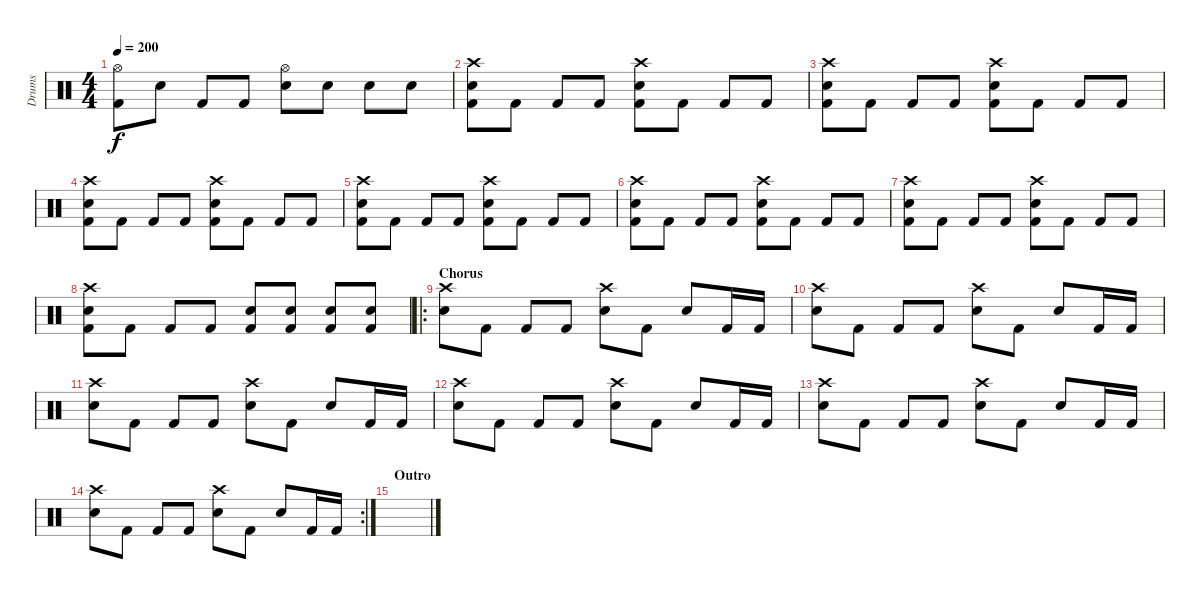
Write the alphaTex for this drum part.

\track ("Drums" "Drums") {instrument percussion}
\staff {score}
\articulation defaults
\ts (4 4)
\tempo 200
\clef neutral
\ks c
("Hi-Hat (open)" "Kick (hit) 2").8{dy f} "Electric Snare (hit)".8 "Kick (hit) 2".8 "Kick (hit) 2".8 ("Hi-Hat (open)" "Electric Snare (hit)").8 "Electric Snare (hit)".8 "Electric Snare (hit)".8 "Electric Snare (hit)".8 |
("Crash high (hit)" "Electric Snare (hit)" "Kick (hit) 2").8 "Kick (hit) 2".8 "Kick (hit) 2".8 "Kick (hit) 2".8 ("Crash high (hit)" "Electric Snare (hit)" "Kick (hit) 2").8 "Kick (hit) 2".8 "Kick (hit) 2".8 "Kick (hit) 2".8 |
("Crash high (hit)" "Electric Snare (hit)" "Kick (hit) 2").8 "Kick (hit) 2".8 "Kick (hit) 2".8 "Kick (hit) 2".8 ("Crash high (hit)" "Electric Snare (hit)" "Kick (hit) 2").8 "Kick (hit) 2".8 "Kick (hit) 2".8 "Kick (hit) 2".8 |
("Crash high (hit)" "Electric Snare (hit)" "Kick (hit) 2").8 "Kick (hit) 2".8 "Kick (hit) 2".8 "Kick (hit) 2".8 ("Crash high (hit)" "Electric Snare (hit)" "Kick (hit) 2").8 "Kick (hit) 2".8 "Kick (hit) 2".8 "Kick (hit) 2".8 |
("Crash high (hit)" "Electric Snare (hit)" "Kick (hit) 2").8 "Kick (hit) 2".8 "Kick (hit) 2".8 "Kick (hit) 2".8 ("Crash high (hit)" "Electric Snare (hit)" "Kick (hit) 2").8 "Kick (hit) 2".8 "Kick (hit) 2".8 "Kick (hit) 2".8 |
("Crash high (hit)" "Electric Snare (hit)" "Kick (hit) 2").8 "Kick (hit) 2".8 "Kick (hit) 2".8 "Kick (hit) 2".8 ("Crash high (hit)" "Electric Snare (hit)" "Kick (hit) 2").8 "Kick (hit) 2".8 "Kick (hit) 2".8 "Kick (hit) 2".8 |
("Crash high (hit)" "Electric Snare (hit)" "Kick (hit) 2").8 "Kick (hit) 2".8 "Kick (hit) 2".8 "Kick (hit) 2".8 ("Crash high (hit)" "Electric Snare (hit)" "Kick (hit) 2").8 "Kick (hit) 2".8 "Kick (hit) 2".8 "Kick (hit) 2".8 |
("Crash high (hit)" "Electric Snare (hit)" "Kick (hit) 2").8 "Kick (hit) 2".8 "Kick (hit) 2".8 "Kick (hit) 2".8 ("Electric Snare (hit)" "Kick (hit) 2").8 ("Electric Snare (hit)" "Kick (hit) 2").8 ("Electric Snare (hit)" "Kick (hit) 2").8 ("Electric Snare (hit)" "Kick (hit) 2").8 |
\ro
\section ("" "Chorus")
("Crash high (hit)" "Electric Snare (hit)").8 "Kick (hit) 2".8 "Kick (hit) 2".8 "Kick (hit) 2".8 ("Crash high (hit)" "Electric Snare (hit)").8 "Kick (hit) 2".8 "Electric Snare (hit)".8 "Kick (hit) 2".16 "Kick (hit) 2".16 |
("Crash high (hit)" "Electric Snare (hit)").8 "Kick (hit) 2".8 "Kick (hit) 2".8 "Kick (hit) 2".8 ("Crash high (hit)" "Electric Snare (hit)").8 "Kick (hit) 2".8 "Electric Snare (hit)".8 "Kick (hit) 2".16 "Kick (hit) 2".16 |
("Crash high (hit)" "Electric Snare (hit)").8 "Kick (hit) 2".8 "Kick (hit) 2".8 "Kick (hit) 2".8 ("Crash high (hit)" "Electric Snare (hit)").8 "Kick (hit) 2".8 "Electric Snare (hit)".8 "Kick (hit) 2".16 "Kick (hit) 2".16 |
("Crash high (hit)" "Electric Snare (hit)").8 "Kick (hit) 2".8 "Kick (hit) 2".8 "Kick (hit) 2".8 ("Crash high (hit)" "Electric Snare (hit)").8 "Kick (hit) 2".8 "Electric Snare (hit)".8 "Kick (hit) 2".16 "Kick (hit) 2".16 |
("Crash high (hit)" "Electric Snare (hit)").8 "Kick (hit) 2".8 "Kick (hit) 2".8 "Kick (hit) 2".8 ("Crash high (hit)" "Electric Snare (hit)").8 "Kick (hit) 2".8 "Electric Snare (hit)".8 "Kick (hit) 2".16 "Kick (hit) 2".16 |
\rc 2
("Crash high (hit)" "Electric Snare (hit)").8 "Kick (hit) 2".8 "Kick (hit) 2".8 "Kick (hit) 2".8 ("Crash high (hit)" "Electric Snare (hit)").8 "Kick (hit) 2".8 "Electric Snare (hit)".8 "Kick (hit) 2".16 "Kick (hit) 2".16 |
\section ("" "Outro")
